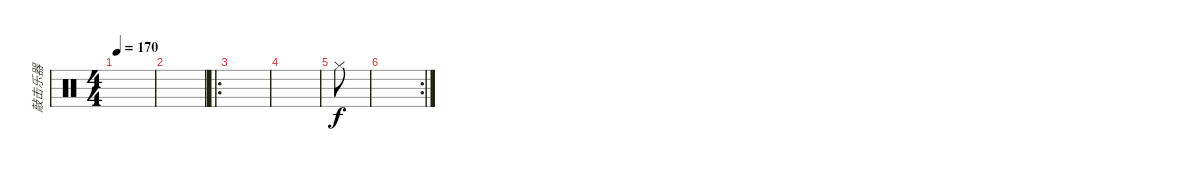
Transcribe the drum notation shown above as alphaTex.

\track ("敲击乐器" "敲击乐器") {instrument percussion}
\staff {score}
\articulation defaults
\ts (4 4)
\tempo 170
\clef neutral
\ks c
|
|
\ro
|
|
"Hi-Hat (closed)".8{dy f} |
\rc 2
